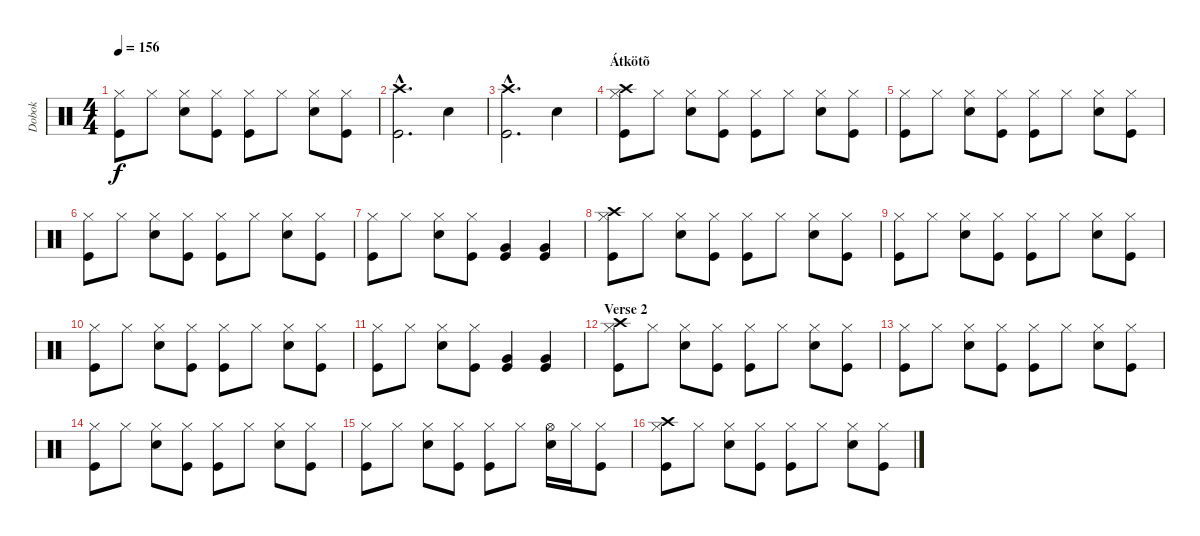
\track ("Dobok" "Dobok") {instrument percussion}
\staff {score}
\articulation defaults
\ts (4 4)
\tempo 156
\clef neutral
\ks c
("Hi-Hat (closed)" "Kick (hit)").8{dy f} "Hi-Hat (closed)".8 ("Hi-Hat (closed)" "Electric Snare (hit)").8 ("Hi-Hat (closed)" "Kick (hit)").8 ("Hi-Hat (closed)" "Kick (hit)").8 "Hi-Hat (closed)".8 ("Hi-Hat (closed)" "Electric Snare (hit)").8 ("Hi-Hat (closed)" "Kick (hit)").8 |
("Crash high (hit)"{hac} "Kick (hit)"{hac}).2{d} "Electric Snare (hit)".4 |
("Crash high (hit)"{hac} "Kick (hit)"{hac}).2{d} "Electric Snare (hit)".4 |
\section ("" "Átkötõ")
("Hi-Hat (closed)" "Crash high (hit)" "Kick (hit)").8 "Hi-Hat (closed)".8 ("Hi-Hat (closed)" "Electric Snare (hit)").8 ("Hi-Hat (closed)" "Kick (hit)").8 ("Hi-Hat (closed)" "Kick (hit)").8 "Hi-Hat (closed)".8 ("Hi-Hat (closed)" "Electric Snare (hit)").8 ("Hi-Hat (closed)" "Kick (hit)").8 |
("Hi-Hat (closed)" "Kick (hit)").8 "Hi-Hat (closed)".8 ("Hi-Hat (closed)" "Electric Snare (hit)").8 ("Hi-Hat (closed)" "Kick (hit)").8 ("Hi-Hat (closed)" "Kick (hit)").8 "Hi-Hat (closed)".8 ("Hi-Hat (closed)" "Electric Snare (hit)").8 ("Hi-Hat (closed)" "Kick (hit)").8 |
("Hi-Hat (closed)" "Kick (hit)").8 "Hi-Hat (closed)".8 ("Hi-Hat (closed)" "Electric Snare (hit)").8 ("Hi-Hat (closed)" "Kick (hit)").8 ("Hi-Hat (closed)" "Kick (hit)").8 "Hi-Hat (closed)".8 ("Hi-Hat (closed)" "Electric Snare (hit)").8 ("Hi-Hat (closed)" "Kick (hit)").8 |
("Hi-Hat (closed)" "Kick (hit)").8 "Hi-Hat (closed)".8 ("Hi-Hat (closed)" "Electric Snare (hit)").8 ("Hi-Hat (closed)" "Kick (hit)").8 ("Very Low Tom (hit)" "Kick (hit)").4 ("Very Low Tom (hit)" "Kick (hit)").4 |
("Hi-Hat (closed)" "Crash high (hit)" "Kick (hit)").8 "Hi-Hat (closed)".8 ("Hi-Hat (closed)" "Electric Snare (hit)").8 ("Hi-Hat (closed)" "Kick (hit)").8 ("Hi-Hat (closed)" "Kick (hit)").8 "Hi-Hat (closed)".8 ("Hi-Hat (closed)" "Electric Snare (hit)").8 ("Hi-Hat (closed)" "Kick (hit)").8 |
("Hi-Hat (closed)" "Kick (hit)").8 "Hi-Hat (closed)".8 ("Hi-Hat (closed)" "Electric Snare (hit)").8 ("Hi-Hat (closed)" "Kick (hit)").8 ("Hi-Hat (closed)" "Kick (hit)").8 "Hi-Hat (closed)".8 ("Hi-Hat (closed)" "Electric Snare (hit)").8 ("Hi-Hat (closed)" "Kick (hit)").8 |
("Hi-Hat (closed)" "Kick (hit)").8 "Hi-Hat (closed)".8 ("Hi-Hat (closed)" "Electric Snare (hit)").8 ("Hi-Hat (closed)" "Kick (hit)").8 ("Hi-Hat (closed)" "Kick (hit)").8 "Hi-Hat (closed)".8 ("Hi-Hat (closed)" "Electric Snare (hit)").8 ("Hi-Hat (closed)" "Kick (hit)").8 |
("Hi-Hat (closed)" "Kick (hit)").8 "Hi-Hat (closed)".8 ("Hi-Hat (closed)" "Electric Snare (hit)").8 ("Hi-Hat (closed)" "Kick (hit)").8 ("Very Low Tom (hit)" "Kick (hit)").4 ("Very Low Tom (hit)" "Kick (hit)").4 |
\section ("" "Verse 2")
("Hi-Hat (closed)" "Crash high (hit)" "Kick (hit)").8 "Hi-Hat (closed)".8 ("Hi-Hat (closed)" "Electric Snare (hit)").8 ("Hi-Hat (closed)" "Kick (hit)").8 ("Hi-Hat (closed)" "Kick (hit)").8 "Hi-Hat (closed)".8 ("Hi-Hat (closed)" "Electric Snare (hit)").8 ("Hi-Hat (closed)" "Kick (hit)").8 |
("Hi-Hat (closed)" "Kick (hit)").8 "Hi-Hat (closed)".8 ("Hi-Hat (closed)" "Electric Snare (hit)").8 ("Hi-Hat (closed)" "Kick (hit)").8 ("Hi-Hat (closed)" "Kick (hit)").8 "Hi-Hat (closed)".8 ("Hi-Hat (closed)" "Electric Snare (hit)").8 ("Hi-Hat (closed)" "Kick (hit)").8 |
("Hi-Hat (closed)" "Kick (hit)").8 "Hi-Hat (closed)".8 ("Hi-Hat (closed)" "Electric Snare (hit)").8 ("Hi-Hat (closed)" "Kick (hit)").8 ("Hi-Hat (closed)" "Kick (hit)").8 "Hi-Hat (closed)".8 ("Hi-Hat (closed)" "Electric Snare (hit)").8 ("Hi-Hat (closed)" "Kick (hit)").8 |
("Hi-Hat (closed)" "Kick (hit)").8 "Hi-Hat (closed)".8 ("Hi-Hat (closed)" "Electric Snare (hit)").8 ("Hi-Hat (closed)" "Kick (hit)").8 ("Hi-Hat (closed)" "Kick (hit)").8 "Hi-Hat (closed)".8 ("Hi-Hat (open)" "Electric Snare (hit)").16 "Hi-Hat (closed)".16 ("Hi-Hat (closed)" "Kick (hit)").8 |
("Hi-Hat (closed)" "Crash high (hit)" "Kick (hit)").8 "Hi-Hat (closed)".8 ("Hi-Hat (closed)" "Electric Snare (hit)").8 ("Hi-Hat (closed)" "Kick (hit)").8 ("Hi-Hat (closed)" "Kick (hit)").8 "Hi-Hat (closed)".8 ("Hi-Hat (closed)" "Electric Snare (hit)").8 ("Hi-Hat (closed)" "Kick (hit)").8
